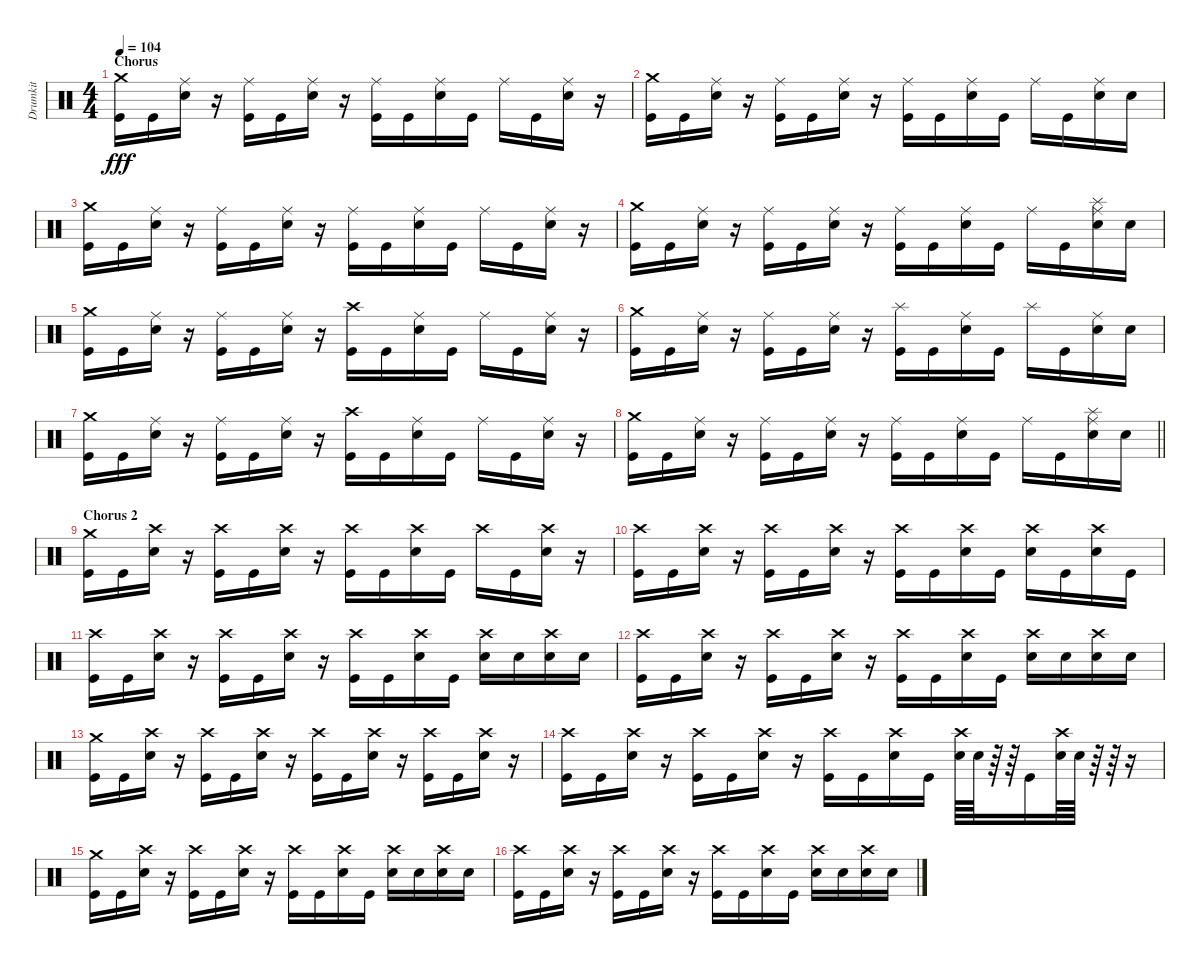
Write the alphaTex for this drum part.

\track ("Drumkit" "Drumkit") {instrument percussion}
\staff {score}
\articulation defaults
\ts (4 4)
\section ("" "Chorus")
\tempo 104
\clef neutral
\ks c
("Crash medium (hit)" "Kick (hit)").16{dy fff} "Kick (hit)".16 ("Ride (middle)" "Snare (hit) 2").16 r.16 ("Ride (middle)" "Kick (hit)").16 "Kick (hit)".16 ("Ride (middle)" "Snare (hit) 2").16 r.16 ("Ride (middle)" "Kick (hit)").16 "Kick (hit)".16 ("Ride (middle)" "Snare (hit) 2").16 "Kick (hit)".16 "Ride (middle)".16 "Kick (hit)".16 ("Ride (middle)" "Snare (hit) 2").16 r.16 |
("Crash medium (hit)" "Kick (hit)").16 "Kick (hit)".16 ("Ride (middle)" "Snare (hit) 2").16 r.16 ("Ride (middle)" "Kick (hit)").16 "Kick (hit)".16 ("Ride (middle)" "Snare (hit) 2").16 r.16 ("Ride (middle)" "Kick (hit)").16 "Kick (hit)".16 ("Ride (middle)" "Snare (hit) 2").16 "Kick (hit)".16 "Ride (middle)".16 "Kick (hit)".16 ("Ride (middle)" "Snare (hit) 2").16 "Snare (hit) 2".16 |
("Crash medium (hit)" "Kick (hit)").16 "Kick (hit)".16 ("Ride (middle)" "Snare (hit) 2").16 r.16 ("Ride (middle)" "Kick (hit)").16 "Kick (hit)".16 ("Ride (middle)" "Snare (hit) 2").16 r.16 ("Ride (middle)" "Kick (hit)").16 "Kick (hit)".16 ("Ride (middle)" "Snare (hit) 2").16 "Kick (hit)".16 "Ride (middle)".16 "Kick (hit)".16 ("Ride (middle)" "Snare (hit) 2").16 r.16 |
("Crash medium (hit)" "Kick (hit)").16 "Kick (hit)".16 ("Ride (middle)" "Snare (hit) 2").16 r.16 ("Ride (middle)" "Kick (hit)").16 "Kick (hit)".16 ("Ride (middle)" "Snare (hit) 2").16 r.16 ("Ride (middle)" "Kick (hit)").16 "Kick (hit)".16 ("Ride (middle)" "Snare (hit) 2").16 "Kick (hit)".16 "Ride (middle)".16 "Kick (hit)".16 ("Splash (hit)" "Ride (middle)" "Snare (hit) 2").16 "Snare (hit) 2".16 |
("Crash medium (hit)" "Kick (hit)").16 "Kick (hit)".16 ("Ride (middle)" "Snare (hit) 2").16 r.16 ("Ride (middle)" "Kick (hit)").16 "Kick (hit)".16 ("Ride (middle)" "Snare (hit) 2").16 r.16 ("Crash high (hit)" "Kick (hit)").16 "Kick (hit)".16 ("Ride (middle)" "Snare (hit) 2").16 "Kick (hit)".16 "Ride (middle)".16 "Kick (hit)".16 ("Ride (middle)" "Snare (hit) 2").16 r.16 |
("Crash medium (hit)" "Kick (hit)").16 "Kick (hit)".16 ("Ride (middle)" "Snare (hit) 2").16 r.16 ("Ride (middle)" "Kick (hit)").16 "Kick (hit)".16 ("Ride (middle)" "Snare (hit) 2").16 r.16 ("Splash (hit)" "Kick (hit)").16 "Kick (hit)".16 ("Ride (middle)" "Snare (hit) 2").16 "Kick (hit)".16 "Splash (hit)".16 "Kick (hit)".16 ("Ride (middle)" "Snare (hit) 2").16 "Snare (hit) 2".16 |
("Crash medium (hit)" "Kick (hit)").16 "Kick (hit)".16 ("Ride (middle)" "Snare (hit) 2").16 r.16 ("Ride (middle)" "Kick (hit)").16 "Kick (hit)".16 ("Ride (middle)" "Snare (hit) 2").16 r.16 ("Crash high (hit)" "Kick (hit)").16 "Kick (hit)".16 ("Ride (middle)" "Snare (hit) 2").16 "Kick (hit)".16 "Ride (middle)".16 "Kick (hit)".16 ("Ride (middle)" "Snare (hit) 2").16 r.16 |
\barLineRight lightlight
("Crash medium (hit)" "Kick (hit)").16 "Kick (hit)".16 ("Ride (middle)" "Snare (hit) 2").16 r.16 ("Ride (middle)" "Kick (hit)").16 "Kick (hit)".16 ("Ride (middle)" "Snare (hit) 2").16 r.16 ("Ride (middle)" "Kick (hit)").16 "Kick (hit)".16 ("Ride (middle)" "Snare (hit) 2").16 "Kick (hit)".16 "Ride (middle)".16 "Kick (hit)".16 ("Splash (hit)" "Ride (middle)" "Snare (hit) 2").16 "Snare (hit) 2".16 |
\section ("" "Chorus 2")
("Crash medium (hit)" "Kick (hit)").16 "Kick (hit)".16 ("Crash high (hit)" "Snare (hit) 2").16 r.16 ("Crash high (hit)" "Kick (hit)").16 "Kick (hit)".16 ("Crash high (hit)" "Snare (hit) 2").16 r.16 ("Crash high (hit)" "Kick (hit)").16 "Kick (hit)".16 ("Crash high (hit)" "Snare (hit) 2").16 "Kick (hit)".16 "Crash high (hit)".16 "Kick (hit)".16 ("Crash high (hit)" "Snare (hit) 2").16 r.16 |
("Crash high (hit)" "Kick (hit)").16 "Kick (hit)".16 ("Crash high (hit)" "Snare (hit) 2").16 r.16 ("Crash high (hit)" "Kick (hit)").16 "Kick (hit)".16 ("Crash high (hit)" "Snare (hit) 2").16 r.16 ("Crash high (hit)" "Kick (hit)").16 "Kick (hit)".16 ("Crash high (hit)" "Snare (hit) 2").16 "Kick (hit)".16 ("Crash high (hit)" "Snare (hit) 2").16 "Kick (hit)".16 ("Crash high (hit)" "Snare (hit) 2").16 "Kick (hit)".16 |
("Crash high (hit)" "Kick (hit)").16 "Kick (hit)".16 ("Crash high (hit)" "Snare (hit) 2").16 r.16 ("Crash high (hit)" "Kick (hit)").16 "Kick (hit)".16 ("Crash high (hit)" "Snare (hit) 2").16 r.16 ("Crash high (hit)" "Kick (hit)").16 "Kick (hit)".16 ("Crash high (hit)" "Snare (hit) 2").16 "Kick (hit)".16 ("Crash high (hit)" "Snare (hit) 2").16 "Snare (hit) 2".16 ("Crash high (hit)" "Snare (hit) 2").16 "Snare (hit) 2".16 |
("Crash high (hit)" "Kick (hit)").16 "Kick (hit)".16 ("Crash high (hit)" "Snare (hit) 2").16 r.16 ("Crash high (hit)" "Kick (hit)").16 "Kick (hit)".16 ("Crash high (hit)" "Snare (hit) 2").16 r.16 ("Crash high (hit)" "Kick (hit)").16 "Kick (hit)".16 ("Crash high (hit)" "Snare (hit) 2").16 "Kick (hit)".16 ("Crash high (hit)" "Snare (hit) 2").16 "Snare (hit) 2".16 ("Crash high (hit)" "Snare (hit) 2").16 "Snare (hit) 2".16 |
("Crash medium (hit)" "Kick (hit)").16 "Kick (hit)".16 ("Crash high (hit)" "Snare (hit) 2").16 r.16 ("Crash high (hit)" "Kick (hit)").16 "Kick (hit)".16 ("Crash high (hit)" "Snare (hit) 2").16 r.16 ("Crash high (hit)" "Kick (hit)").16 "Kick (hit)".16 ("Crash high (hit)" "Snare (hit) 2").16 r.16 ("Crash high (hit)" "Kick (hit)").16 "Kick (hit)".16 ("Crash high (hit)" "Snare (hit) 2").16 r.16 |
("Crash high (hit)" "Kick (hit)").16 "Kick (hit)".16 ("Crash high (hit)" "Snare (hit) 2").16 r.16 ("Crash high (hit)" "Kick (hit)").16 "Kick (hit)".16 ("Crash high (hit)" "Snare (hit) 2").16 r.16 ("Crash high (hit)" "Kick (hit)").16 "Kick (hit)".16 ("Crash high (hit)" "Snare (hit) 2").16 "Kick (hit)".16 ("Crash high (hit)" "Snare (hit) 2").64 "Snare (hit) 2".64 r.64 r.64 "Kick (hit)".16 ("Crash high (hit)" "Snare (hit) 2").64 "Snare (hit) 2".64 r.64 r.64 r.16 |
("Crash medium (hit)" "Kick (hit)").16 "Kick (hit)".16 ("Crash high (hit)" "Snare (hit) 2").16 r.16 ("Crash high (hit)" "Kick (hit)").16 "Kick (hit)".16 ("Crash high (hit)" "Snare (hit) 2").16 r.16 ("Crash high (hit)" "Kick (hit)").16 "Kick (hit)".16 ("Crash high (hit)" "Snare (hit) 2").16 "Kick (hit)".16 ("Crash high (hit)" "Snare (hit) 2").16 "Snare (hit) 2".16 ("Crash high (hit)" "Snare (hit) 2").16 "Snare (hit) 2".16 |
("Crash high (hit)" "Kick (hit)").16 "Kick (hit)".16 ("Crash high (hit)" "Snare (hit) 2").16 r.16 ("Crash high (hit)" "Kick (hit)").16 "Kick (hit)".16 ("Crash high (hit)" "Snare (hit) 2").16 r.16 ("Crash high (hit)" "Kick (hit)").16 "Kick (hit)".16 ("Crash high (hit)" "Snare (hit) 2").16 "Kick (hit)".16 ("Crash high (hit)" "Snare (hit) 2").16 "Snare (hit) 2".16 ("Crash high (hit)" "Snare (hit) 2").16 "Snare (hit) 2".16
